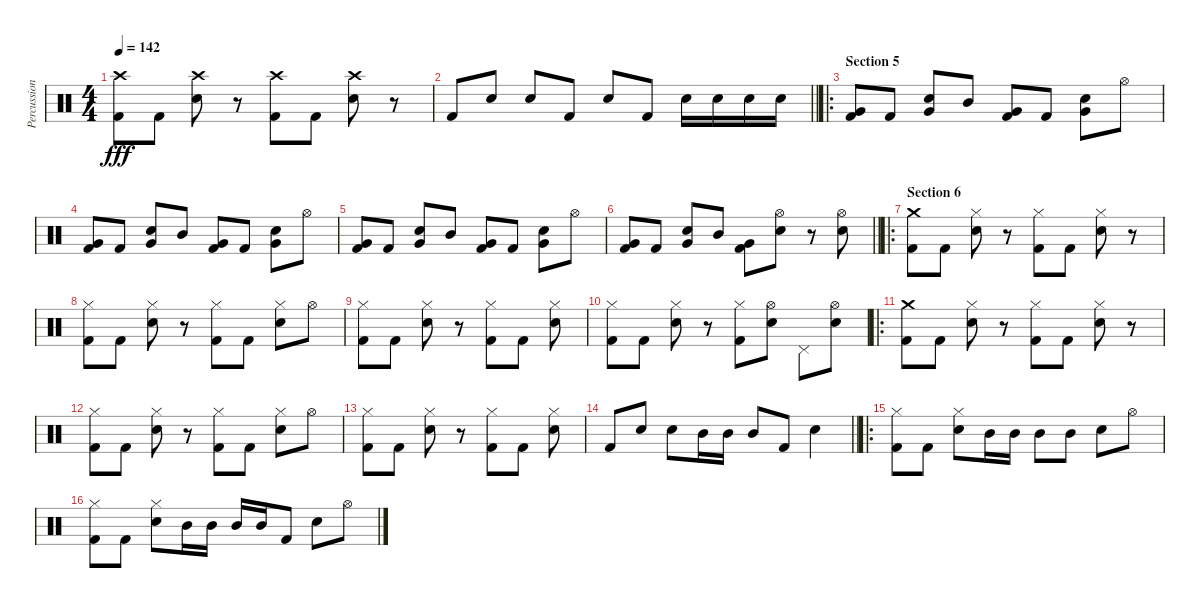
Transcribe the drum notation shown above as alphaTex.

\track ("Percussion" "Percussion") {instrument percussion}
\staff {score}
\articulation defaults
\ts (4 4)
\tempo 142
\clef neutral
\ks c
("Crash high (hit)" "Kick (hit) 2").8{dy fff} "Kick (hit) 2".8 ("Crash high (hit)" "Electric Snare (hit)").8 r.8 ("Crash high (hit)" "Kick (hit) 2").8 "Kick (hit) 2".8 ("Crash high (hit)" "Electric Snare (hit)").8 r.8 |
\barLineRight lightlight "Kick (hit) 2".8 "Electric Snare (hit)".8 "Electric Snare (hit)".8 "Kick (hit) 2".8 "Electric Snare (hit)".8 "Kick (hit) 2".8 "Electric Snare (hit)".16 "Electric Snare (hit)".16 "Electric Snare (hit)".16 "Electric Snare (hit)".16
|
\ro
\section ("" "Section 5")
("Very Low Tom (hit)" "Kick (hit) 2").8 "Kick (hit) 2".8 ("Very Low Tom (hit)" "Electric Snare (hit)").8 "Mid Tom (hit)".8 ("Very Low Tom (hit)" "Kick (hit) 2").8 "Kick (hit) 2".8 ("Very Low Tom (hit)" "Electric Snare (hit)").8 "Hi-Hat (open)".8 |
("Very Low Tom (hit)" "Kick (hit) 2").8 "Kick (hit) 2".8 ("Very Low Tom (hit)" "Electric Snare (hit)").8 "Mid Tom (hit)".8 ("Very Low Tom (hit)" "Kick (hit) 2").8 "Kick (hit) 2".8 ("Very Low Tom (hit)" "Electric Snare (hit)").8 "Hi-Hat (open)".8 |
("Very Low Tom (hit)" "Kick (hit) 2").8 "Kick (hit) 2".8 ("Very Low Tom (hit)" "Electric Snare (hit)").8 "Mid Tom (hit)".8 ("Very Low Tom (hit)" "Kick (hit) 2").8 "Kick (hit) 2".8 ("Very Low Tom (hit)" "Electric Snare (hit)").8 "Hi-Hat (open)".8 |
\barLineRight lightlight
("Very Low Tom (hit)" "Kick (hit) 2").8 "Kick (hit) 2".8 ("Very Low Tom (hit)" "Electric Snare (hit)").8 "Mid Tom (hit)".8 ("Very Low Tom (hit)" "Kick (hit) 2").8 ("Hi-Hat (open)" "Electric Snare (hit)").8 r.8 ("Hi-Hat (open)" "Electric Snare (hit)").8 |
\ro
\section ("" "Section 6")
("Crash medium (hit)" "Kick (hit) 2").8 "Kick (hit) 2".8 ("Hi-Hat (closed)" "Electric Snare (hit)").8 r.8 ("Hi-Hat (closed)" "Kick (hit) 2").8 "Kick (hit) 2".8 ("Hi-Hat (closed)" "Electric Snare (hit)").8 r.8 |
("Hi-Hat (closed)" "Kick (hit) 2").8 "Kick (hit) 2".8 ("Hi-Hat (closed)" "Electric Snare (hit)").8 r.8 ("Hi-Hat (closed)" "Kick (hit) 2").8 "Kick (hit) 2".8 ("Hi-Hat (closed)" "Electric Snare (hit)").8 "Hi-Hat (open)".8 |
("Hi-Hat (closed)" "Kick (hit) 2").8 "Kick (hit) 2".8 ("Hi-Hat (closed)" "Electric Snare (hit)").8 r.8 ("Hi-Hat (closed)" "Kick (hit) 2").8 "Kick (hit) 2".8 ("Hi-Hat (closed)" "Electric Snare (hit)").8 |
("Hi-Hat (closed)" "Kick (hit) 2").8 "Kick (hit) 2".8 ("Hi-Hat (closed)" "Electric Snare (hit)").8 r.8 ("Hi-Hat (closed)" "Kick (hit) 2").8 ("Hi-Hat (open)" "Electric Snare (hit)").8 "Pedal Hi-Hat (hit)".8 ("Hi-Hat (open)" "Electric Snare (hit)").8 |
\ro
("Crash medium (hit)" "Kick (hit) 2").8 "Kick (hit) 2".8 ("Hi-Hat (closed)" "Electric Snare (hit)").8 r.8 ("Hi-Hat (closed)" "Kick (hit) 2").8 "Kick (hit) 2".8 ("Hi-Hat (closed)" "Electric Snare (hit)").8 r.8 |
("Hi-Hat (closed)" "Kick (hit) 2").8 "Kick (hit) 2".8 ("Hi-Hat (closed)" "Electric Snare (hit)").8 r.8 ("Hi-Hat (closed)" "Kick (hit) 2").8 "Kick (hit) 2".8 ("Hi-Hat (closed)" "Electric Snare (hit)").8 "Hi-Hat (open)".8 |
("Hi-Hat (closed)" "Kick (hit) 2").8 "Kick (hit) 2".8 ("Hi-Hat (closed)" "Electric Snare (hit)").8 r.8 ("Hi-Hat (closed)" "Kick (hit) 2").8 "Kick (hit) 2".8 ("Hi-Hat (closed)" "Electric Snare (hit)").8 |
\barLineRight lightlight "Kick (hit) 2".8 "Electric Snare (hit)".8 "Electric Snare (hit)".8 "Mid Tom (hit)".16 "Mid Tom (hit)".16 "Mid Tom (hit)".8 "Kick (hit) 2".8 "Electric Snare (hit)".4
|
\ro
("Hi-Hat (closed)" "Kick (hit) 2").8 "Kick (hit) 2".8 ("Hi-Hat (closed)" "Electric Snare (hit)").8 "Mid Tom (hit)".16 "Mid Tom (hit)".16 "Mid Tom (hit)".8 "Mid Tom (hit)".8 "Electric Snare (hit)".8 "Hi-Hat (open)".8 |
("Hi-Hat (closed)" "Kick (hit) 2").8 "Kick (hit) 2".8 ("Hi-Hat (closed)" "Electric Snare (hit)").8 "Mid Tom (hit)".16 "Mid Tom (hit)".16 "Mid Tom (hit)".16 "Mid Tom (hit)".16 "Kick (hit) 2".8 "Electric Snare (hit)".8 "Hi-Hat (open)".8
